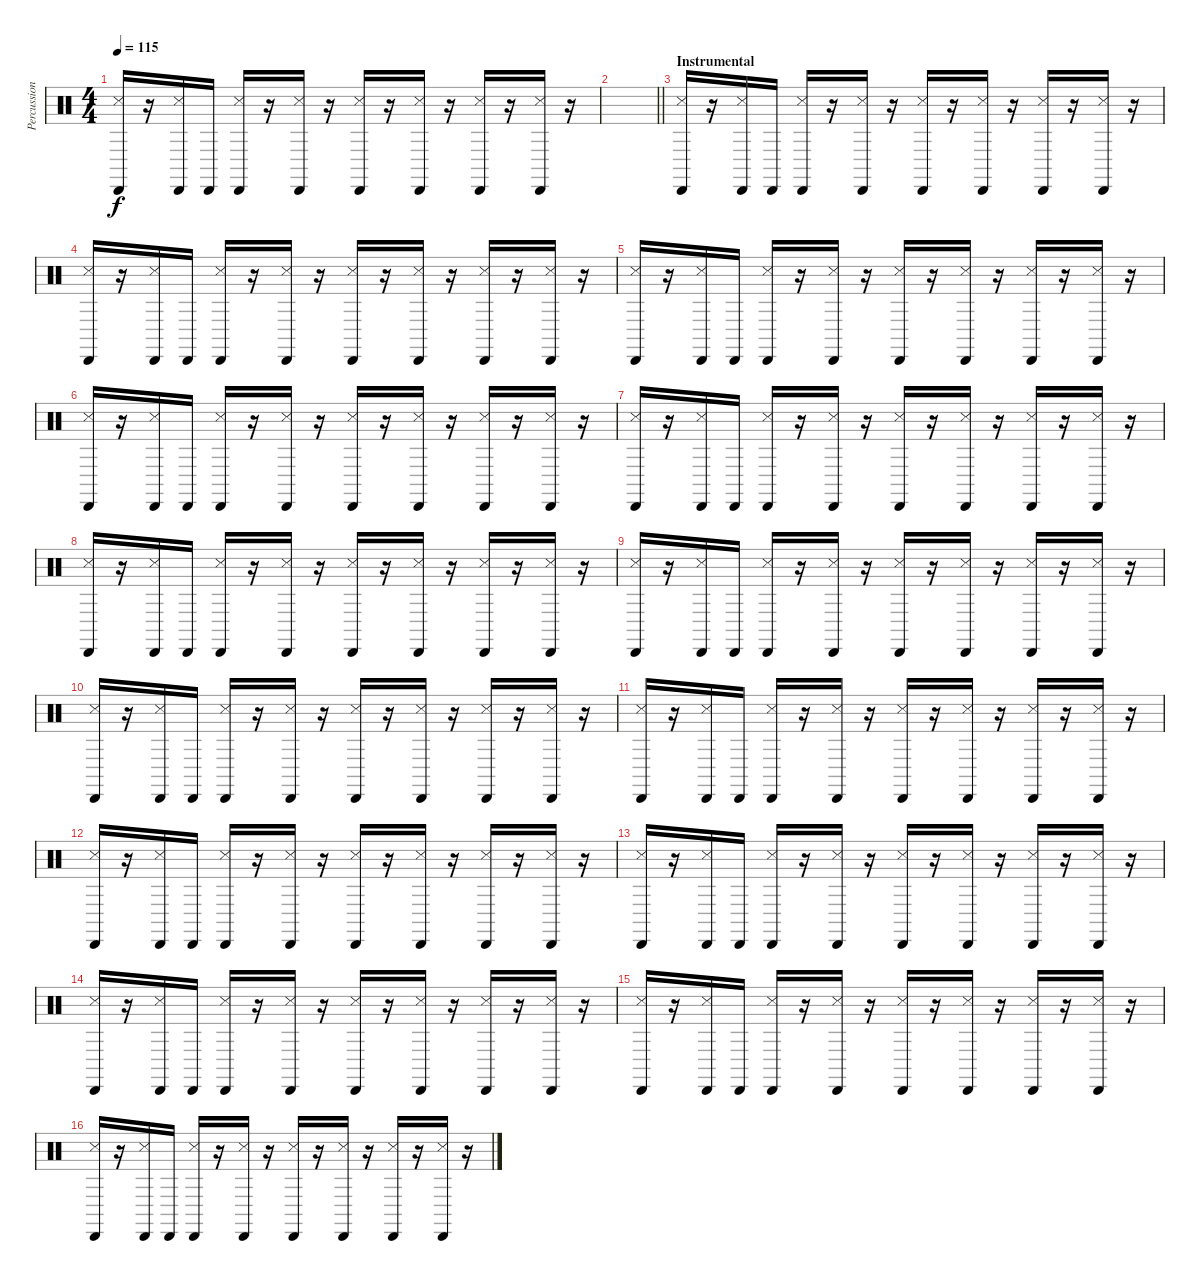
\track ("Percussion" "Percussion") {instrument percussion}
\staff {score}
\articulation defaults
\ts (4 4)
\tempo 115
\clef neutral
\ks c
("Cabasa (hit)" "Snare (side stick) 3").16{dy f} r.16 ("Cabasa (hit)" "Snare (side stick) 3").16 "Cabasa (hit)".16 ("Cabasa (hit)" "Snare (side stick) 3").16 r.16 ("Cabasa (hit)" "Snare (side stick) 3").16 r.16 ("Cabasa (hit)" "Snare (side stick) 3").16 r.16 ("Cabasa (hit)" "Snare (side stick) 3").16 r.16 ("Cabasa (hit)" "Snare (side stick) 3").16 r.16 ("Cabasa (hit)" "Snare (side stick) 3").16 r.16 |
\barLineRight lightlight
|
\section ("" "Instrumental")
("Cabasa (hit)" "Snare (side stick) 3").16 r.16 ("Cabasa (hit)" "Snare (side stick) 3").16 "Cabasa (hit)".16 ("Cabasa (hit)" "Snare (side stick) 3").16 r.16 ("Cabasa (hit)" "Snare (side stick) 3").16 r.16 ("Cabasa (hit)" "Snare (side stick) 3").16 r.16 ("Cabasa (hit)" "Snare (side stick) 3").16 r.16 ("Cabasa (hit)" "Snare (side stick) 3").16 r.16 ("Cabasa (hit)" "Snare (side stick) 3").16 r.16 |
("Cabasa (hit)" "Snare (side stick) 3").16 r.16 ("Cabasa (hit)" "Snare (side stick) 3").16 "Cabasa (hit)".16 ("Cabasa (hit)" "Snare (side stick) 3").16 r.16 ("Cabasa (hit)" "Snare (side stick) 3").16 r.16 ("Cabasa (hit)" "Snare (side stick) 3").16 r.16 ("Cabasa (hit)" "Snare (side stick) 3").16 r.16 ("Cabasa (hit)" "Snare (side stick) 3").16 r.16 ("Cabasa (hit)" "Snare (side stick) 3").16 r.16 |
("Cabasa (hit)" "Snare (side stick) 3").16 r.16 ("Cabasa (hit)" "Snare (side stick) 3").16 "Cabasa (hit)".16 ("Cabasa (hit)" "Snare (side stick) 3").16 r.16 ("Cabasa (hit)" "Snare (side stick) 3").16 r.16 ("Cabasa (hit)" "Snare (side stick) 3").16 r.16 ("Cabasa (hit)" "Snare (side stick) 3").16 r.16 ("Cabasa (hit)" "Snare (side stick) 3").16 r.16 ("Cabasa (hit)" "Snare (side stick) 3").16 r.16 |
("Cabasa (hit)" "Snare (side stick) 3").16 r.16 ("Cabasa (hit)" "Snare (side stick) 3").16 "Cabasa (hit)".16 ("Cabasa (hit)" "Snare (side stick) 3").16 r.16 ("Cabasa (hit)" "Snare (side stick) 3").16 r.16 ("Cabasa (hit)" "Snare (side stick) 3").16 r.16 ("Cabasa (hit)" "Snare (side stick) 3").16 r.16 ("Cabasa (hit)" "Snare (side stick) 3").16 r.16 ("Cabasa (hit)" "Snare (side stick) 3").16 r.16 |
("Cabasa (hit)" "Snare (side stick) 3").16 r.16 ("Cabasa (hit)" "Snare (side stick) 3").16 "Cabasa (hit)".16 ("Cabasa (hit)" "Snare (side stick) 3").16 r.16 ("Cabasa (hit)" "Snare (side stick) 3").16 r.16 ("Cabasa (hit)" "Snare (side stick) 3").16 r.16 ("Cabasa (hit)" "Snare (side stick) 3").16 r.16 ("Cabasa (hit)" "Snare (side stick) 3").16 r.16 ("Cabasa (hit)" "Snare (side stick) 3").16 r.16 |
("Cabasa (hit)" "Snare (side stick) 3").16 r.16 ("Cabasa (hit)" "Snare (side stick) 3").16 "Cabasa (hit)".16 ("Cabasa (hit)" "Snare (side stick) 3").16 r.16 ("Cabasa (hit)" "Snare (side stick) 3").16 r.16 ("Cabasa (hit)" "Snare (side stick) 3").16 r.16 ("Cabasa (hit)" "Snare (side stick) 3").16 r.16 ("Cabasa (hit)" "Snare (side stick) 3").16 r.16 ("Cabasa (hit)" "Snare (side stick) 3").16 r.16 |
("Cabasa (hit)" "Snare (side stick) 3").16 r.16 ("Cabasa (hit)" "Snare (side stick) 3").16 "Cabasa (hit)".16 ("Cabasa (hit)" "Snare (side stick) 3").16 r.16 ("Cabasa (hit)" "Snare (side stick) 3").16 r.16 ("Cabasa (hit)" "Snare (side stick) 3").16 r.16 ("Cabasa (hit)" "Snare (side stick) 3").16 r.16 ("Cabasa (hit)" "Snare (side stick) 3").16 r.16 ("Cabasa (hit)" "Snare (side stick) 3").16 r.16 |
("Cabasa (hit)" "Snare (side stick) 3").16 r.16 ("Cabasa (hit)" "Snare (side stick) 3").16 "Cabasa (hit)".16 ("Cabasa (hit)" "Snare (side stick) 3").16 r.16 ("Cabasa (hit)" "Snare (side stick) 3").16 r.16 ("Cabasa (hit)" "Snare (side stick) 3").16 r.16 ("Cabasa (hit)" "Snare (side stick) 3").16 r.16 ("Cabasa (hit)" "Snare (side stick) 3").16 r.16 ("Cabasa (hit)" "Snare (side stick) 3").16 r.16 |
("Cabasa (hit)" "Snare (side stick) 3").16 r.16 ("Cabasa (hit)" "Snare (side stick) 3").16 "Cabasa (hit)".16 ("Cabasa (hit)" "Snare (side stick) 3").16 r.16 ("Cabasa (hit)" "Snare (side stick) 3").16 r.16 ("Cabasa (hit)" "Snare (side stick) 3").16 r.16 ("Cabasa (hit)" "Snare (side stick) 3").16 r.16 ("Cabasa (hit)" "Snare (side stick) 3").16 r.16 ("Cabasa (hit)" "Snare (side stick) 3").16 r.16 |
("Cabasa (hit)" "Snare (side stick) 3").16 r.16 ("Cabasa (hit)" "Snare (side stick) 3").16 "Cabasa (hit)".16 ("Cabasa (hit)" "Snare (side stick) 3").16 r.16 ("Cabasa (hit)" "Snare (side stick) 3").16 r.16 ("Cabasa (hit)" "Snare (side stick) 3").16 r.16 ("Cabasa (hit)" "Snare (side stick) 3").16 r.16 ("Cabasa (hit)" "Snare (side stick) 3").16 r.16 ("Cabasa (hit)" "Snare (side stick) 3").16 r.16 |
("Cabasa (hit)" "Snare (side stick) 3").16 r.16 ("Cabasa (hit)" "Snare (side stick) 3").16 "Cabasa (hit)".16 ("Cabasa (hit)" "Snare (side stick) 3").16 r.16 ("Cabasa (hit)" "Snare (side stick) 3").16 r.16 ("Cabasa (hit)" "Snare (side stick) 3").16 r.16 ("Cabasa (hit)" "Snare (side stick) 3").16 r.16 ("Cabasa (hit)" "Snare (side stick) 3").16 r.16 ("Cabasa (hit)" "Snare (side stick) 3").16 r.16 |
("Cabasa (hit)" "Snare (side stick) 3").16 r.16 ("Cabasa (hit)" "Snare (side stick) 3").16 "Cabasa (hit)".16 ("Cabasa (hit)" "Snare (side stick) 3").16 r.16 ("Cabasa (hit)" "Snare (side stick) 3").16 r.16 ("Cabasa (hit)" "Snare (side stick) 3").16 r.16 ("Cabasa (hit)" "Snare (side stick) 3").16 r.16 ("Cabasa (hit)" "Snare (side stick) 3").16 r.16 ("Cabasa (hit)" "Snare (side stick) 3").16 r.16 |
("Cabasa (hit)" "Snare (side stick) 3").16 r.16 ("Cabasa (hit)" "Snare (side stick) 3").16 "Cabasa (hit)".16 ("Cabasa (hit)" "Snare (side stick) 3").16 r.16 ("Cabasa (hit)" "Snare (side stick) 3").16 r.16 ("Cabasa (hit)" "Snare (side stick) 3").16 r.16 ("Cabasa (hit)" "Snare (side stick) 3").16 r.16 ("Cabasa (hit)" "Snare (side stick) 3").16 r.16 ("Cabasa (hit)" "Snare (side stick) 3").16 r.16 |
("Cabasa (hit)" "Snare (side stick) 3").16 r.16 ("Cabasa (hit)" "Snare (side stick) 3").16 "Cabasa (hit)".16 ("Cabasa (hit)" "Snare (side stick) 3").16 r.16 ("Cabasa (hit)" "Snare (side stick) 3").16 r.16 ("Cabasa (hit)" "Snare (side stick) 3").16 r.16 ("Cabasa (hit)" "Snare (side stick) 3").16 r.16 ("Cabasa (hit)" "Snare (side stick) 3").16 r.16 ("Cabasa (hit)" "Snare (side stick) 3").16 r.16
